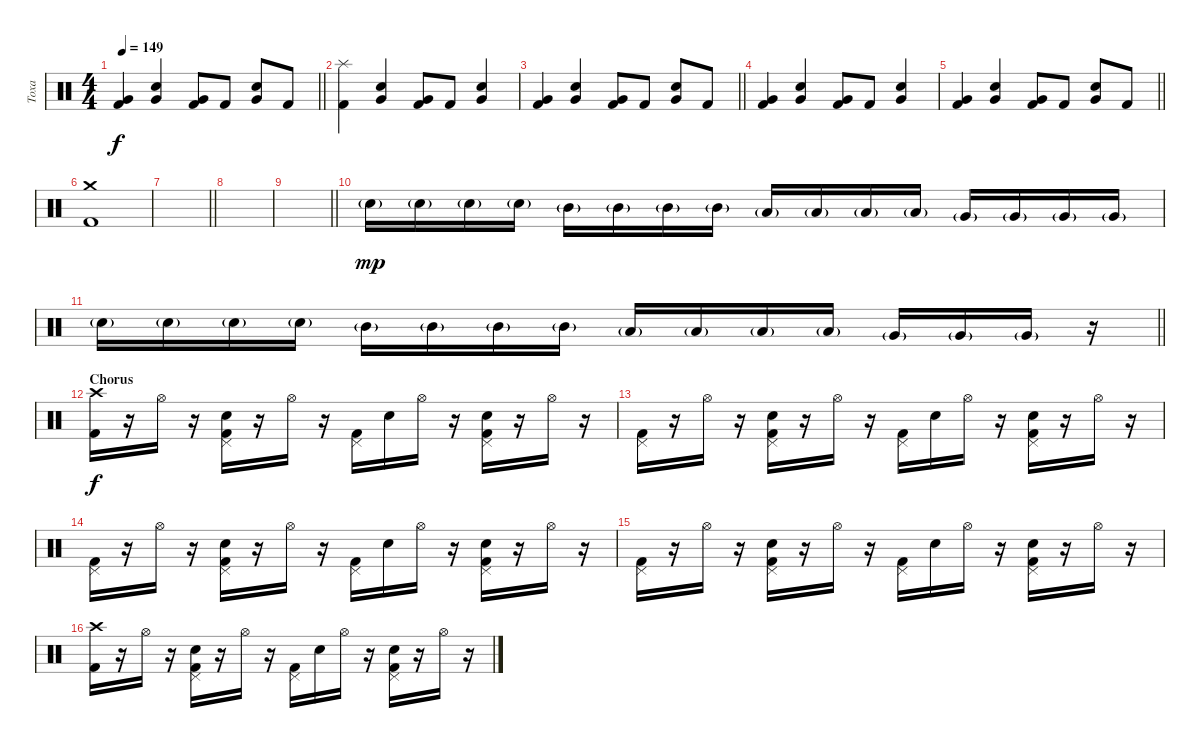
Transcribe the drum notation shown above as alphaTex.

\track ("Toxa" "Toxa") {instrument percussion}
\staff {score}
\articulation defaults
\ts (4 4)
\tempo 149
\clef neutral
\barLineRight lightlight
\ks c
("Kick (hit) 2" "Very Low Tom (hit)").4{dy f} ("Snare (hit) 2" "Very Low Tom (hit)").4 ("Kick (hit) 2" "Very Low Tom (hit)").8 "Kick (hit) 2".8 ("Snare (hit) 2" "Very Low Tom (hit)").8 "Kick (hit) 2".8 |
("Kick (hit) 2" "Splash (hit)").4 ("Snare (hit) 2" "Very Low Tom (hit)").4 ("Kick (hit) 2" "Very Low Tom (hit)").8 "Kick (hit) 2".8 ("Snare (hit) 2" "Very Low Tom (hit)").4 |
\barLineRight lightlight
("Kick (hit) 2" "Very Low Tom (hit)").4 ("Snare (hit) 2" "Very Low Tom (hit)").4 ("Kick (hit) 2" "Very Low Tom (hit)").8 "Kick (hit) 2".8 ("Snare (hit) 2" "Very Low Tom (hit)").8 "Kick (hit) 2".8 |
("Kick (hit) 2" "Very Low Tom (hit)").4 ("Snare (hit) 2" "Very Low Tom (hit)").4 ("Kick (hit) 2" "Very Low Tom (hit)").8 "Kick (hit) 2".8 ("Snare (hit) 2" "Very Low Tom (hit)").4 |
\barLineRight lightlight
("Kick (hit) 2" "Very Low Tom (hit)").4 ("Snare (hit) 2" "Very Low Tom (hit)").4 ("Kick (hit) 2" "Very Low Tom (hit)").8 "Kick (hit) 2".8 ("Snare (hit) 2" "Very Low Tom (hit)").8 "Kick (hit) 2".8 |
("Kick (hit) 2" "Crash medium (hit)").1 |
\barLineRight lightlight
|
|
\barLineRight lightlight
|
"Snare (hit) 2"{g}.16{dy mp} "Snare (hit) 2"{g}.16 "Snare (hit) 2"{g}.16 "Snare (hit) 2"{g}.16 "Mid Tom (hit)"{g}.16 "Mid Tom (hit)"{g}.16 "Mid Tom (hit)"{g}.16 "Mid Tom (hit)"{g}.16 "Low Tom (hit)"{g}.16 "Low Tom (hit)"{g}.16 "Low Tom (hit)"{g}.16 "Low Tom (hit)"{g}.16 "Very Low Tom (hit)"{g}.16 "Very Low Tom (hit)"{g}.16 "Very Low Tom (hit)"{g}.16 "Very Low Tom (hit)"{g}.16 |
\barLineRight lightlight "Snare (hit) 2"{g}.16 "Snare (hit) 2"{g}.16 "Snare (hit) 2"{g}.16 "Snare (hit) 2"{g}.16 "Mid Tom (hit)"{g}.16 "Mid Tom (hit)"{g}.16 "Mid Tom (hit)"{g}.16 "Mid Tom (hit)"{g}.16 "Low Tom (hit)"{g}.16 "Low Tom (hit)"{g}.16 "Low Tom (hit)"{g}.16 "Low Tom (hit)"{g}.16 "Very Low Tom (hit)"{g}.16 "Very Low Tom (hit)"{g}.16 "Very Low Tom (hit)"{g}.16
r.16 |
\section ("" "Chorus")
("Kick (hit) 2" "Crash high (hit)").16{dy f} r.16 "Hi-Hat (open)".16 r.16 ("Snare (hit) 2" "Pedal Hi-Hat (hit)" "Kick (hit) 2").16 r.16 "Hi-Hat (open)".16 r.16 ("Kick (hit) 2" "Pedal Hi-Hat (hit)").16 "Snare (hit) 2".16 "Hi-Hat (open)".16 r.16 ("Snare (hit) 2" "Kick (hit) 2" "Pedal Hi-Hat (hit)").16 r.16 "Hi-Hat (open)".16 r.16 |
("Kick (hit) 2" "Pedal Hi-Hat (hit)").16 r.16 "Hi-Hat (open)".16 r.16 ("Snare (hit) 2" "Pedal Hi-Hat (hit)" "Kick (hit) 2").16 r.16 "Hi-Hat (open)".16 r.16 ("Kick (hit) 2" "Pedal Hi-Hat (hit)").16 "Snare (hit) 2".16 "Hi-Hat (open)".16 r.16 ("Snare (hit) 2" "Kick (hit) 2" "Pedal Hi-Hat (hit)").16 r.16 "Hi-Hat (open)".16 r.16 |
("Kick (hit) 2" "Pedal Hi-Hat (hit)").16 r.16 "Hi-Hat (open)".16 r.16 ("Snare (hit) 2" "Pedal Hi-Hat (hit)" "Kick (hit) 2").16 r.16 "Hi-Hat (open)".16 r.16 ("Kick (hit) 2" "Pedal Hi-Hat (hit)").16 "Snare (hit) 2".16 "Hi-Hat (open)".16 r.16 ("Snare (hit) 2" "Kick (hit) 2" "Pedal Hi-Hat (hit)").16 r.16 "Hi-Hat (open)".16 r.16 |
("Kick (hit) 2" "Pedal Hi-Hat (hit)").16 r.16 "Hi-Hat (open)".16 r.16 ("Snare (hit) 2" "Pedal Hi-Hat (hit)" "Kick (hit) 2").16 r.16 "Hi-Hat (open)".16 r.16 ("Kick (hit) 2" "Pedal Hi-Hat (hit)").16 "Snare (hit) 2".16 "Hi-Hat (open)".16 r.16 ("Snare (hit) 2" "Kick (hit) 2" "Pedal Hi-Hat (hit)").16 r.16 "Hi-Hat (open)".16 r.16 |
("Kick (hit) 2" "Crash high (hit)").16 r.16 "Hi-Hat (open)".16 r.16 ("Snare (hit) 2" "Pedal Hi-Hat (hit)" "Kick (hit) 2").16 r.16 "Hi-Hat (open)".16 r.16 ("Kick (hit) 2" "Pedal Hi-Hat (hit)").16 "Snare (hit) 2".16 "Hi-Hat (open)".16 r.16 ("Snare (hit) 2" "Kick (hit) 2" "Pedal Hi-Hat (hit)").16 r.16 "Hi-Hat (open)".16 r.16
